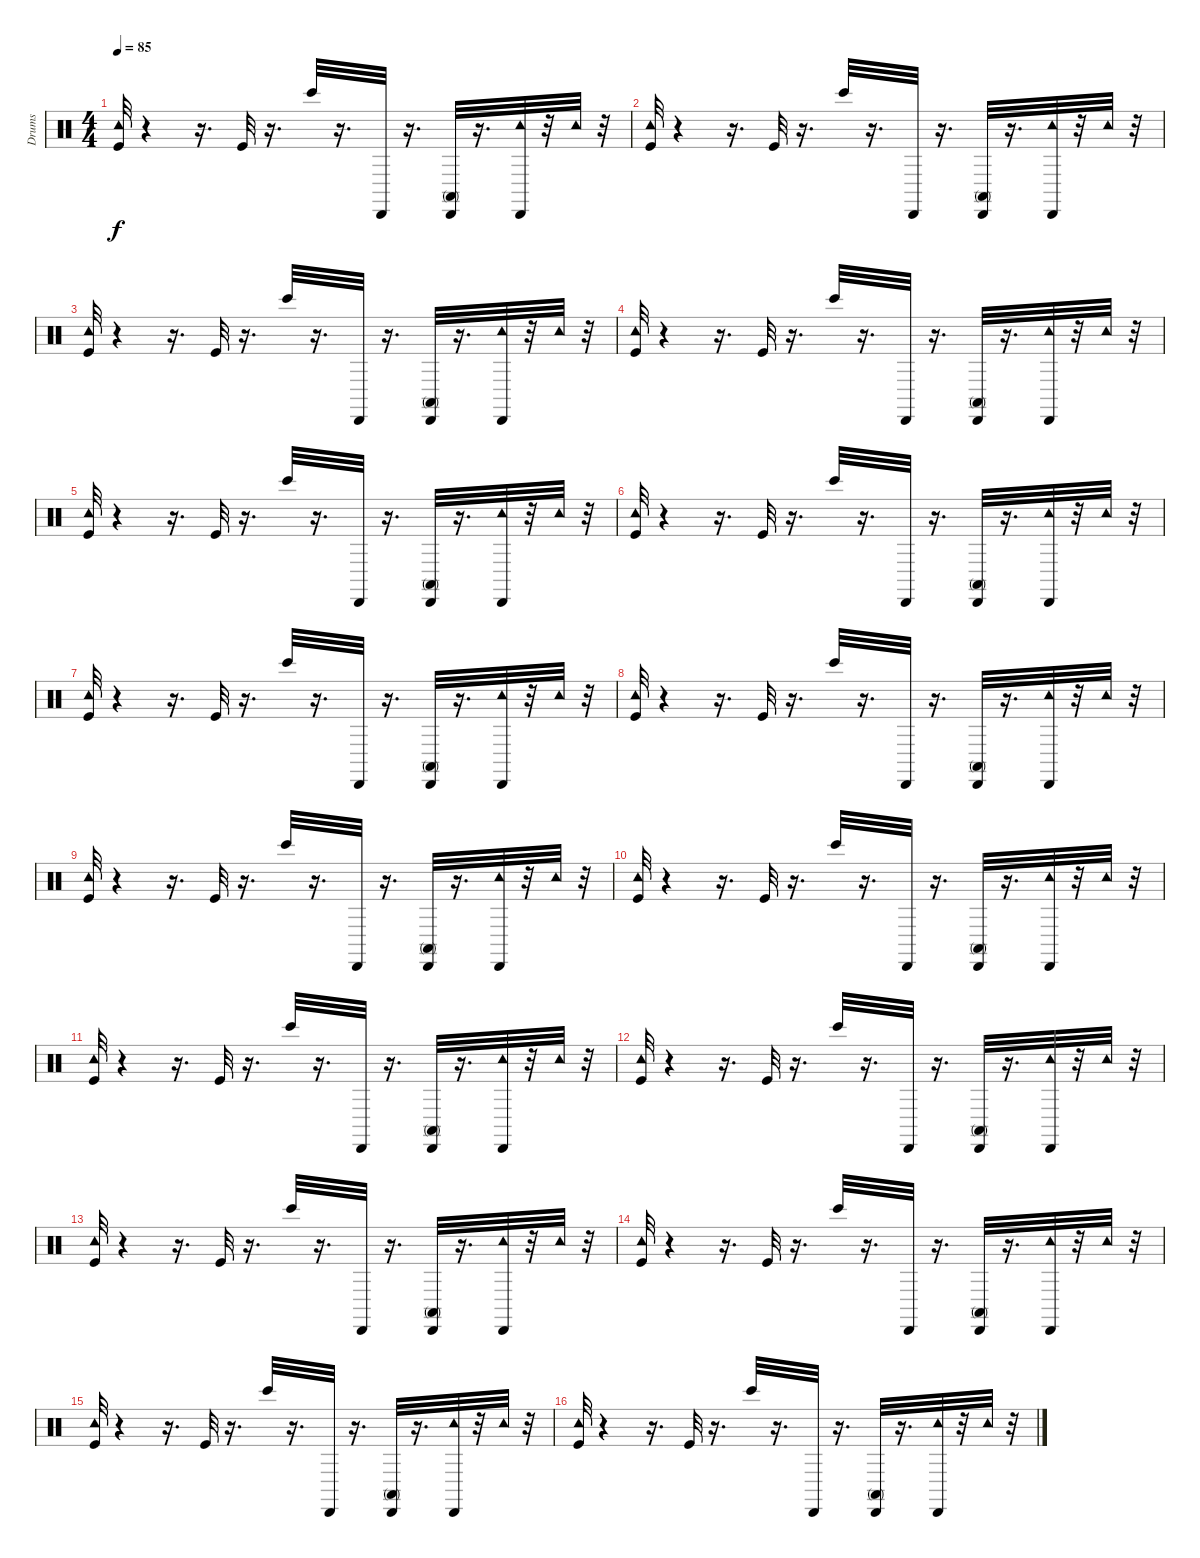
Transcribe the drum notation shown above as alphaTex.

\track ("Drums" "Drums") {instrument percussion}
\staff {score}
\articulation defaults
\ts (4 4)
\tempo 85
\clef neutral
\ks c
("Kick (hit)" "Tambourine (hit)").32{dy f} r.4 r.16{d} "Kick (hit)".32 r.16{d} "Bongo High (hit)".32 r.16{d} "Cabasa (hit)".32 r.16{d} ("Cabasa (hit)" "Conga high (mute)").32 r.16{d} ("Cabasa (hit)" "Tambourine (hit)").32 r.32 "Tambourine (hit)".32 r.32 |
("Kick (hit)" "Tambourine (hit)").32 r.4 r.16{d} "Kick (hit)".32 r.16{d} "Bongo High (hit)".32 r.16{d} "Cabasa (hit)".32 r.16{d} ("Cabasa (hit)" "Conga high (mute)").32 r.16{d} ("Cabasa (hit)" "Tambourine (hit)").32 r.32 "Tambourine (hit)".32 r.32 |
("Kick (hit)" "Tambourine (hit)").32 r.4 r.16{d} "Kick (hit)".32 r.16{d} "Bongo High (hit)".32 r.16{d} "Cabasa (hit)".32 r.16{d} ("Cabasa (hit)" "Conga high (mute)").32 r.16{d} ("Cabasa (hit)" "Tambourine (hit)").32 r.32 "Tambourine (hit)".32 r.32 |
("Kick (hit)" "Tambourine (hit)").32 r.4 r.16{d} "Kick (hit)".32 r.16{d} "Bongo High (hit)".32 r.16{d} "Cabasa (hit)".32 r.16{d} ("Cabasa (hit)" "Conga high (mute)").32 r.16{d} ("Cabasa (hit)" "Tambourine (hit)").32 r.32 "Tambourine (hit)".32 r.32 |
("Kick (hit)" "Tambourine (hit)").32 r.4 r.16{d} "Kick (hit)".32 r.16{d} "Bongo High (hit)".32 r.16{d} "Cabasa (hit)".32 r.16{d} ("Cabasa (hit)" "Conga high (mute)").32 r.16{d} ("Cabasa (hit)" "Tambourine (hit)").32 r.32 "Tambourine (hit)".32 r.32 |
("Kick (hit)" "Tambourine (hit)").32 r.4 r.16{d} "Kick (hit)".32 r.16{d} "Bongo High (hit)".32 r.16{d} "Cabasa (hit)".32 r.16{d} ("Cabasa (hit)" "Conga high (mute)").32 r.16{d} ("Cabasa (hit)" "Tambourine (hit)").32 r.32 "Tambourine (hit)".32 r.32 |
("Kick (hit)" "Tambourine (hit)").32 r.4 r.16{d} "Kick (hit)".32 r.16{d} "Bongo High (hit)".32 r.16{d} "Cabasa (hit)".32 r.16{d} ("Cabasa (hit)" "Conga high (mute)").32 r.16{d} ("Cabasa (hit)" "Tambourine (hit)").32 r.32 "Tambourine (hit)".32 r.32 |
("Kick (hit)" "Tambourine (hit)").32 r.4 r.16{d} "Kick (hit)".32 r.16{d} "Bongo High (hit)".32 r.16{d} "Cabasa (hit)".32 r.16{d} ("Cabasa (hit)" "Conga high (mute)").32 r.16{d} ("Cabasa (hit)" "Tambourine (hit)").32 r.32 "Tambourine (hit)".32 r.32 |
("Kick (hit)" "Tambourine (hit)").32 r.4 r.16{d} "Kick (hit)".32 r.16{d} "Bongo High (hit)".32 r.16{d} "Cabasa (hit)".32 r.16{d} ("Cabasa (hit)" "Conga high (mute)").32 r.16{d} ("Cabasa (hit)" "Tambourine (hit)").32 r.32 "Tambourine (hit)".32 r.32 |
("Kick (hit)" "Tambourine (hit)").32 r.4 r.16{d} "Kick (hit)".32 r.16{d} "Bongo High (hit)".32 r.16{d} "Cabasa (hit)".32 r.16{d} ("Cabasa (hit)" "Conga high (mute)").32 r.16{d} ("Cabasa (hit)" "Tambourine (hit)").32 r.32 "Tambourine (hit)".32 r.32 |
("Kick (hit)" "Tambourine (hit)").32 r.4 r.16{d} "Kick (hit)".32 r.16{d} "Bongo High (hit)".32 r.16{d} "Cabasa (hit)".32 r.16{d} ("Cabasa (hit)" "Conga high (mute)").32 r.16{d} ("Cabasa (hit)" "Tambourine (hit)").32 r.32 "Tambourine (hit)".32 r.32 |
("Kick (hit)" "Tambourine (hit)").32 r.4 r.16{d} "Kick (hit)".32 r.16{d} "Bongo High (hit)".32 r.16{d} "Cabasa (hit)".32 r.16{d} ("Cabasa (hit)" "Conga high (mute)").32 r.16{d} ("Cabasa (hit)" "Tambourine (hit)").32 r.32 "Tambourine (hit)".32 r.32 |
("Kick (hit)" "Tambourine (hit)").32 r.4 r.16{d} "Kick (hit)".32 r.16{d} "Bongo High (hit)".32 r.16{d} "Cabasa (hit)".32 r.16{d} ("Cabasa (hit)" "Conga high (mute)").32 r.16{d} ("Cabasa (hit)" "Tambourine (hit)").32 r.32 "Tambourine (hit)".32 r.32 |
("Kick (hit)" "Tambourine (hit)").32 r.4 r.16{d} "Kick (hit)".32 r.16{d} "Bongo High (hit)".32 r.16{d} "Cabasa (hit)".32 r.16{d} ("Cabasa (hit)" "Conga high (mute)").32 r.16{d} ("Cabasa (hit)" "Tambourine (hit)").32 r.32 "Tambourine (hit)".32 r.32 |
("Kick (hit)" "Tambourine (hit)").32 r.4 r.16{d} "Kick (hit)".32 r.16{d} "Bongo High (hit)".32 r.16{d} "Cabasa (hit)".32 r.16{d} ("Cabasa (hit)" "Conga high (mute)").32 r.16{d} ("Cabasa (hit)" "Tambourine (hit)").32 r.32 "Tambourine (hit)".32 r.32 |
("Kick (hit)" "Tambourine (hit)").32 r.4 r.16{d} "Kick (hit)".32 r.16{d} "Bongo High (hit)".32 r.16{d} "Cabasa (hit)".32 r.16{d} ("Cabasa (hit)" "Conga high (mute)").32 r.16{d} ("Cabasa (hit)" "Tambourine (hit)").32 r.32 "Tambourine (hit)".32 r.32
